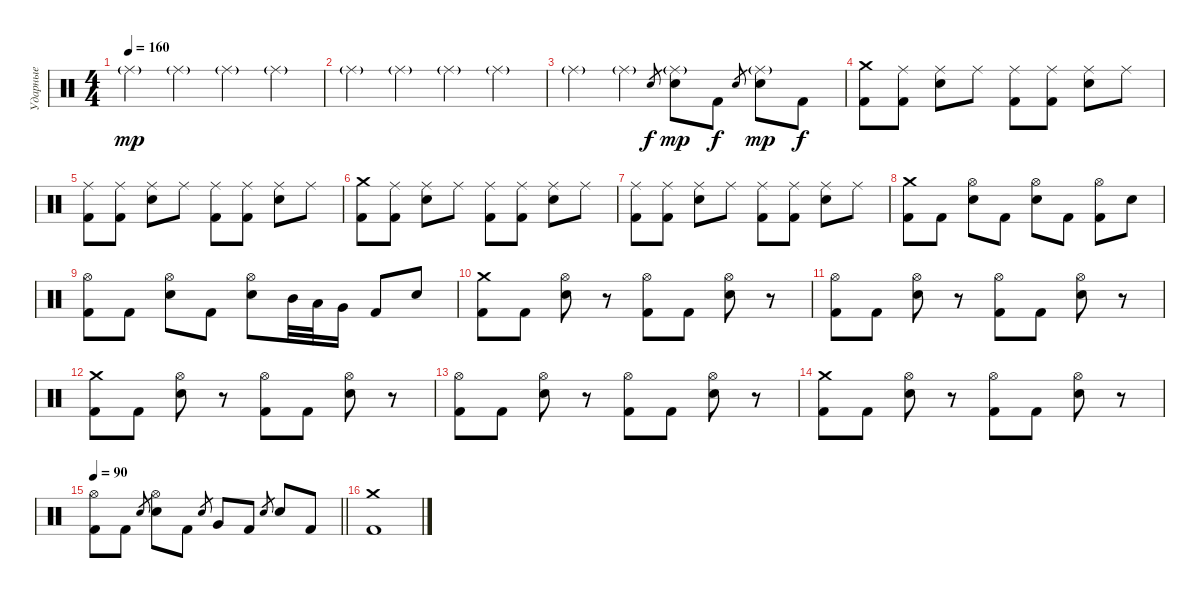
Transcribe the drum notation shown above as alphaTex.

\track ("Ударные" "Ударные") {instrument percussion}
\staff {score}
\articulation defaults
\ts (4 4)
\tempo 160
\clef neutral
\ks c "Ride (middle)"{g}.4{dy mp} "Ride (middle)"{g}.4 "Ride (middle)"{g}.4 "Ride (middle)"{g}.4
|
"Ride (middle)"{g}.4 "Ride (middle)"{g}.4 "Ride (middle)"{g}.4 "Ride (middle)"{g}.4 |
"Ride (middle)"{g}.4 "Ride (middle)"{g}.4 "Snare (hit) 2".8{gr dy f} ("Ride (middle)"{g} "Snare (hit) 2").8{dy mp} "Kick (hit) 2".8{dy f} "Snare (hit) 2".8{gr} ("Ride (middle)"{g} "Snare (hit) 2").8{dy mp} "Kick (hit) 2".8{dy f} |
("Crash medium (hit)" "Kick (hit) 2").8 ("Ride (middle)" "Kick (hit) 2").8 ("Ride (middle)" "Snare (hit) 2").8 "Ride (middle)".8 ("Ride (middle)" "Kick (hit) 2").8 ("Ride (middle)" "Kick (hit) 2").8 ("Ride (middle)" "Snare (hit) 2").8 "Ride (middle)".8 |
("Ride (middle)" "Kick (hit) 2").8 ("Ride (middle)" "Kick (hit) 2").8 ("Ride (middle)" "Snare (hit) 2").8 "Ride (middle)".8 ("Ride (middle)" "Kick (hit) 2").8 ("Ride (middle)" "Kick (hit) 2").8 ("Ride (middle)" "Snare (hit) 2").8 "Ride (middle)".8 |
("Crash medium (hit)" "Kick (hit) 2").8 ("Ride (middle)" "Kick (hit) 2").8 ("Ride (middle)" "Snare (hit) 2").8 "Ride (middle)".8 ("Ride (middle)" "Kick (hit) 2").8 ("Ride (middle)" "Kick (hit) 2").8 ("Ride (middle)" "Snare (hit) 2").8 "Ride (middle)".8 |
("Ride (middle)" "Kick (hit) 2").8 ("Ride (middle)" "Kick (hit) 2").8 ("Ride (middle)" "Snare (hit) 2").8 "Ride (middle)".8 ("Ride (middle)" "Kick (hit) 2").8 ("Ride (middle)" "Kick (hit) 2").8 ("Ride (middle)" "Snare (hit) 2").8 "Ride (middle)".8 |
("Crash medium (hit)" "Kick (hit) 2").8 "Kick (hit) 2".8 ("Hi-Hat (open)" "Snare (hit) 2").8 "Kick (hit) 2".8 ("Hi-Hat (open)" "Snare (hit) 2").8 "Kick (hit) 2".8 ("Hi-Hat (open)" "Kick (hit) 2").8 "Snare (hit) 2".8 |
("Hi-Hat (open)" "Kick (hit) 2").8 "Kick (hit) 2".8 ("Hi-Hat (open)" "Snare (hit) 2").8 "Kick (hit) 2".8 ("Hi-Hat (open)" "Snare (hit) 2").8 "Mid Tom (hit)".32 "Low Tom (hit)".32 "Very Low Tom (hit)".16 "Kick (hit) 2".8 "Snare (hit) 2".8 |
("Crash medium (hit)" "Kick (hit) 2").8 "Kick (hit) 2".8 ("Hi-Hat (open)" "Snare (hit) 2").8 r.8 ("Hi-Hat (open)" "Kick (hit) 2").8 "Kick (hit) 2".8 ("Hi-Hat (open)" "Snare (hit) 2").8 r.8 |
("Hi-Hat (open)" "Kick (hit) 2").8 "Kick (hit) 2".8 ("Hi-Hat (open)" "Snare (hit) 2").8 r.8 ("Hi-Hat (open)" "Kick (hit) 2").8 "Kick (hit) 2".8 ("Hi-Hat (open)" "Snare (hit) 2").8 r.8 |
("Crash medium (hit)" "Kick (hit) 2").8 "Kick (hit) 2".8 ("Hi-Hat (open)" "Snare (hit) 2").8 r.8 ("Hi-Hat (open)" "Kick (hit) 2").8 "Kick (hit) 2".8 ("Hi-Hat (open)" "Snare (hit) 2").8 r.8 |
("Hi-Hat (open)" "Kick (hit) 2").8 "Kick (hit) 2".8 ("Hi-Hat (open)" "Snare (hit) 2").8 r.8 ("Hi-Hat (open)" "Kick (hit) 2").8 "Kick (hit) 2".8 ("Hi-Hat (open)" "Snare (hit) 2").8 r.8 |
("Crash medium (hit)" "Kick (hit) 2").8 "Kick (hit) 2".8 ("Hi-Hat (open)" "Snare (hit) 2").8 r.8 ("Hi-Hat (open)" "Kick (hit) 2").8 "Kick (hit) 2".8 ("Hi-Hat (open)" "Snare (hit) 2").8 r.8 |
\tempo 90
\barLineRight lightlight
("Hi-Hat (open)" "Kick (hit) 2").8 "Kick (hit) 2".8 "Snare (hit) 2".8{gr} ("Hi-Hat (open)" "Snare (hit) 2").8 "Kick (hit) 2".8 "Snare (hit) 2".8{gr} "Very Low Tom (hit)".8 "Kick (hit) 2".8 "Snare (hit) 2".8{gr} "Snare (hit) 2".8 "Kick (hit) 2".8 |
("Crash medium (hit)" "Kick (hit) 2").1
